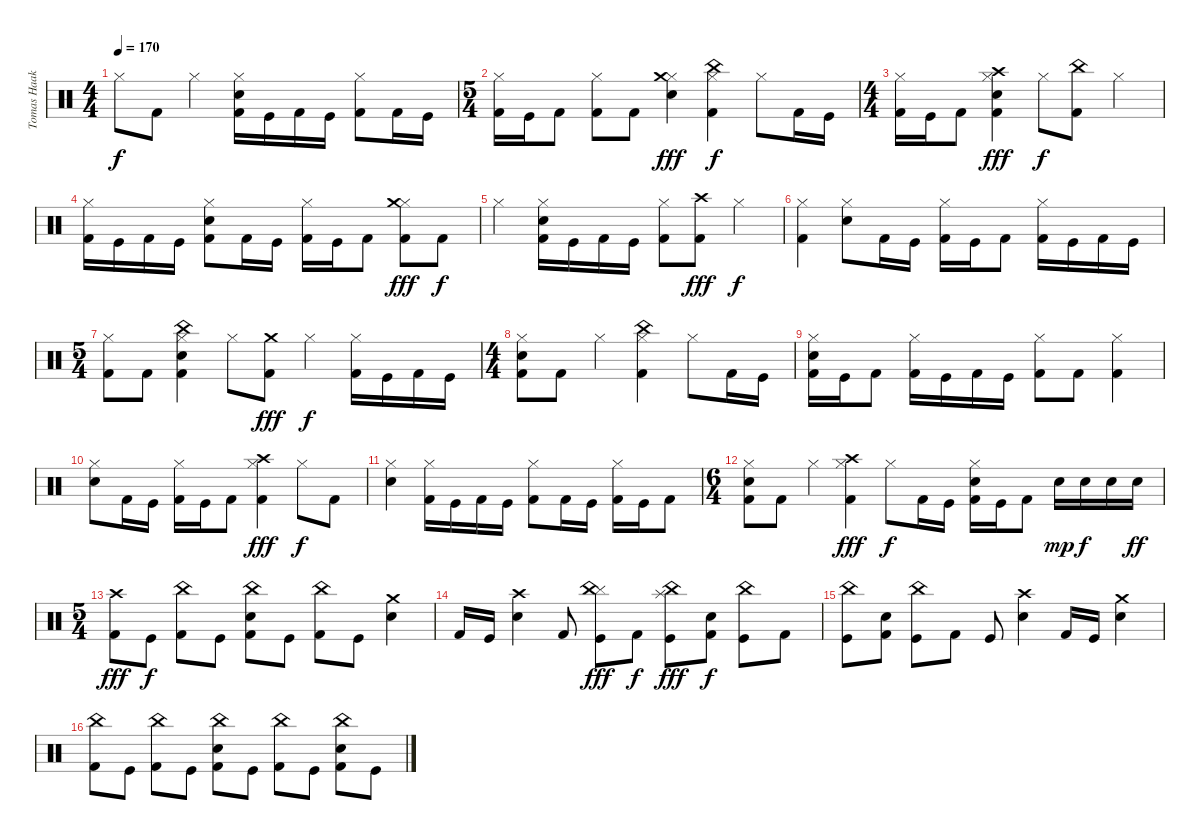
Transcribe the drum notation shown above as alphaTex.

\track ("Tomas Haake" "Tomas Haak") {instrument percussion}
\staff {score}
\articulation defaults
\ts (4 4)
\tempo 170
\clef neutral
\ks c "Hi-Hat (closed)".8{dy f} "Kick (hit) 2".8 "Hi-Hat (closed)".4
("Kick (hit) 2" "Snare (hit) 2" "Hi-Hat (closed)").16 "Kick (hit)".16 "Kick (hit) 2".16 "Kick (hit)".16 ("Kick (hit) 2" "Hi-Hat (closed)").8 "Kick (hit) 2".16 "Kick (hit)".16 |
\ts (5 4)
("Kick (hit) 2" "Hi-Hat (closed)").16 "Kick (hit)".16 "Kick (hit) 2".8 ("Kick (hit) 2" "Hi-Hat (closed)").8 "Kick (hit) 2".8 ("Snare (hit) 2" "Hi-Hat (closed)" "Crash medium (hit)").4{dy fff} ("Kick (hit) 2" "Hi-Hat (closed)" "China (hit)").4{dy f} "Hi-Hat (closed)".8 "Kick (hit) 2".16 "Kick (hit)".16 |
\ts (4 4)
("Kick (hit) 2" "Hi-Hat (closed)").16 "Kick (hit)".16 "Kick (hit) 2".8 ("Kick (hit) 2" "Snare (hit) 2" "Hi-Hat (closed)" "Crash high (hit)").4{dy fff} "Hi-Hat (closed)".8{dy f} ("Kick (hit) 2" "China (hit)").8 "Hi-Hat (closed)".4 |
("Kick (hit) 2" "Hi-Hat (closed)").16 "Kick (hit)".16 "Kick (hit) 2".16 "Kick (hit)".16 ("Kick (hit) 2" "Snare (hit) 2" "Hi-Hat (closed)").8 "Kick (hit) 2".16 "Kick (hit)".16 ("Kick (hit) 2" "Hi-Hat (closed)").16 "Kick (hit)".16 "Kick (hit) 2".8 ("Kick (hit) 2" "Hi-Hat (closed)" "Crash medium (hit)").8{dy fff} "Kick (hit) 2".8{dy f} |
"Hi-Hat (closed)".4 ("Kick (hit) 2" "Snare (hit) 2" "Hi-Hat (closed)").16 "Kick (hit)".16 "Kick (hit) 2".16 "Kick (hit)".16 ("Kick (hit) 2" "Hi-Hat (closed)").8 ("Kick (hit) 2" "Crash high (hit)").8{dy fff} "Hi-Hat (closed)".4{dy f} |
("Kick (hit) 2" "Hi-Hat (closed)").4 ("Snare (hit) 2" "Hi-Hat (closed)").8 "Kick (hit) 2".16 "Kick (hit)".16 ("Kick (hit) 2" "Hi-Hat (closed)").16 "Kick (hit)".16 "Kick (hit) 2".8 ("Kick (hit) 2" "Hi-Hat (closed)").16 "Kick (hit)".16 "Kick (hit) 2".16 "Kick (hit)".16 |
\ts (5 4)
("Kick (hit) 2" "Hi-Hat (closed)").8 "Kick (hit) 2".8 ("Kick (hit) 2" "Snare (hit) 2" "Hi-Hat (closed)" "China (hit)").4 "Hi-Hat (closed)".8 ("Kick (hit) 2" "Crash medium (hit)").8{dy fff} "Hi-Hat (closed)".4{dy f} ("Kick (hit) 2" "Hi-Hat (closed)").16 "Kick (hit)".16 "Kick (hit) 2".16 "Kick (hit)".16 |
\ts (4 4)
("Kick (hit) 2" "Snare (hit) 2" "Hi-Hat (closed)").8 "Kick (hit) 2".8 "Hi-Hat (closed)".4 ("Kick (hit) 2" "Hi-Hat (closed)" "China (hit)").4 "Hi-Hat (closed)".8 "Kick (hit) 2".16 "Kick (hit)".16 |
("Kick (hit) 2" "Snare (hit) 2" "Hi-Hat (closed)").16 "Kick (hit)".16 "Kick (hit) 2".8 ("Kick (hit) 2" "Hi-Hat (closed)").16 "Kick (hit)".16 "Kick (hit) 2".16 "Kick (hit)".16 ("Kick (hit) 2" "Hi-Hat (closed)").8 "Kick (hit) 2".8 ("Kick (hit) 2" "Hi-Hat (closed)").4 |
("Snare (hit) 2" "Hi-Hat (closed)").8 "Kick (hit) 2".16 "Kick (hit)".16 ("Kick (hit) 2" "Hi-Hat (closed)").16 "Kick (hit)".16 "Kick (hit) 2".8 ("Kick (hit) 2" "Hi-Hat (closed)" "Crash high (hit)").4{dy fff} "Hi-Hat (closed)".8{dy f} "Kick (hit) 2".8 |
("Snare (hit) 2" "Hi-Hat (closed)").4 ("Kick (hit) 2" "Hi-Hat (closed)").16 "Kick (hit)".16 "Kick (hit) 2".16 "Kick (hit)".16 ("Kick (hit) 2" "Hi-Hat (closed)").8 "Kick (hit) 2".16 "Kick (hit)".16 ("Kick (hit) 2" "Hi-Hat (closed)").16 "Kick (hit)".16 "Kick (hit) 2".8 |
\ts (6 4)
("Kick (hit) 2" "Snare (hit) 2" "Hi-Hat (closed)").8 "Kick (hit) 2".8 "Hi-Hat (closed)".4 ("Kick (hit) 2" "Hi-Hat (closed)" "Crash high (hit)").4{dy fff} "Hi-Hat (closed)".8{dy f} "Kick (hit) 2".16 "Kick (hit)".16 ("Kick (hit) 2" "Snare (hit) 2" "Hi-Hat (closed)").16 "Kick (hit)".16 "Kick (hit) 2".8 "Snare (hit) 2".16{dy mp} "Snare (hit) 2".16{dy f} "Snare (hit) 2".16 "Snare (hit) 2".16{dy ff} |
\ts (5 4)
("Kick (hit) 2" "Crash high (hit)").8{dy fff} "Kick (hit)".8{dy f} ("Kick (hit) 2" "China (hit)").8 "Kick (hit)".8 ("Kick (hit) 2" "Snare (hit) 2" "China (hit)").8 "Kick (hit)".8 ("Kick (hit) 2" "China (hit)").8 "Kick (hit)".8 ("Snare (hit) 2" "Crash medium (hit)").4 |
"Kick (hit) 2".16 "Kick (hit)".16 ("Snare (hit) 2" "Crash high (hit)").4 "Kick (hit) 2".8 ("Cymbal (hit)" "Kick (hit)" "China (hit)").8{dy fff} "Kick (hit) 2".8{dy f} ("Kick (hit)" "Splash (hit)" "China (hit)").8{dy fff} ("Kick (hit) 2" "Snare (hit) 2").8{dy f} ("Kick (hit)" "China (hit)").8 "Kick (hit) 2".8 |
("Kick (hit)" "China (hit)").8 ("Kick (hit) 2" "Snare (hit) 2").8 ("Kick (hit)" "China (hit)").8 "Kick (hit) 2".8 "Kick (hit)".8 ("Snare (hit) 2" "Crash high (hit)").4 "Kick (hit) 2".16 "Kick (hit)".16 ("Snare (hit) 2" "Crash medium (hit)").4 |
("Kick (hit) 2" "China (hit)").8 "Kick (hit)".8 ("Kick (hit) 2" "China (hit)").8 "Kick (hit)".8 ("Kick (hit) 2" "Snare (hit) 2" "China (hit)").8 "Kick (hit)".8 ("Kick (hit) 2" "China (hit)").8 "Kick (hit)".8 ("Kick (hit) 2" "Snare (hit) 2" "China (hit)").8 "Kick (hit)".8
